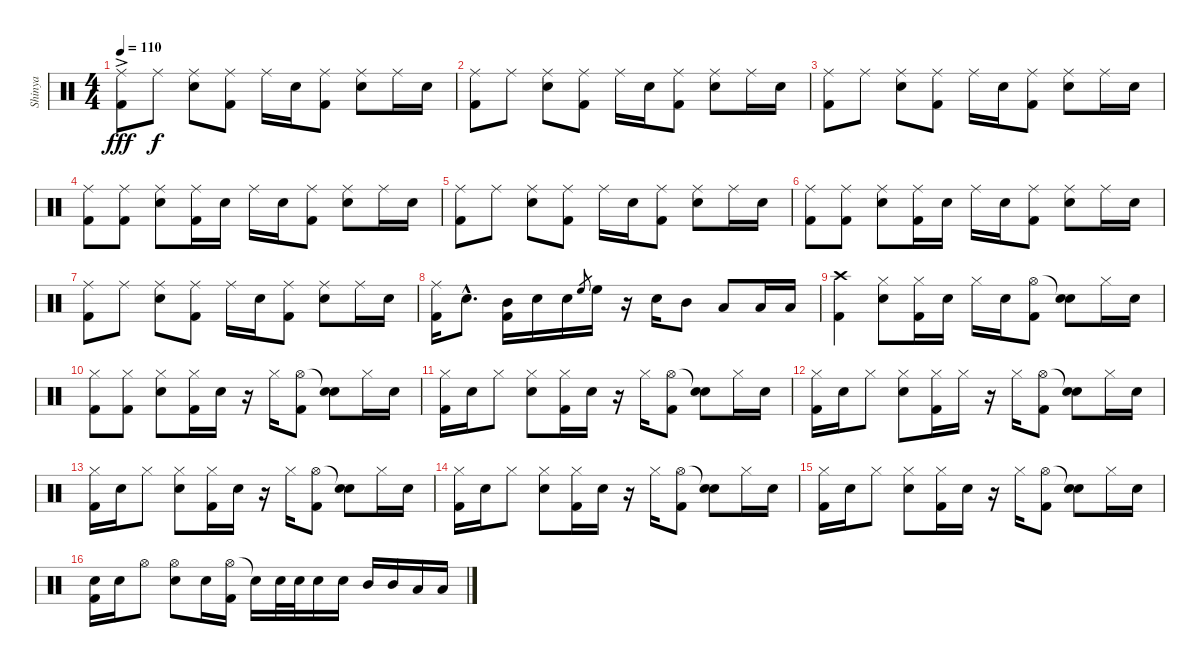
\track ("Shinya" "Shinya") {instrument percussion}
\staff {score}
\articulation defaults
\ts (4 4)
\tempo 110
\clef neutral
\ks c
("Ride (middle)"{ac} "Kick (hit) 2").8{dy fff} "Ride (middle)".8{dy f} ("Ride (middle)" "Snare (hit) 2").8 ("Ride (middle)" "Kick (hit) 2").8 "Ride (middle)".16 "Snare (hit) 2".16 ("Ride (middle)" "Kick (hit) 2").8 ("Ride (middle)" "Snare (hit) 2").8 "Ride (middle)".16 "Snare (hit) 2".16 |
("Ride (middle)" "Kick (hit) 2").8 "Ride (middle)".8 ("Ride (middle)" "Snare (hit) 2").8 ("Ride (middle)" "Kick (hit) 2").8 "Ride (middle)".16 "Snare (hit) 2".16 ("Ride (middle)" "Kick (hit) 2").8 ("Ride (middle)" "Snare (hit) 2").8 "Ride (middle)".16 "Snare (hit) 2".16 |
("Ride (middle)" "Kick (hit) 2").8 "Ride (middle)".8 ("Ride (middle)" "Snare (hit) 2").8 ("Ride (middle)" "Kick (hit) 2").8 "Ride (middle)".16 "Snare (hit) 2".16 ("Ride (middle)" "Kick (hit) 2").8 ("Ride (middle)" "Snare (hit) 2").8 "Ride (middle)".16 "Snare (hit) 2".16 |
("Ride (middle)" "Kick (hit) 2").8 ("Ride (middle)" "Kick (hit) 2").8 ("Ride (middle)" "Snare (hit) 2").8 ("Ride (middle)" "Kick (hit) 2").16 "Snare (hit) 2".16 "Ride (middle)".16 "Snare (hit) 2".16 ("Ride (middle)" "Kick (hit) 2").8 ("Ride (middle)" "Snare (hit) 2").8 "Ride (middle)".16 "Snare (hit) 2".16 |
("Ride (middle)" "Kick (hit) 2").8 "Ride (middle)".8 ("Ride (middle)" "Snare (hit) 2").8 ("Ride (middle)" "Kick (hit) 2").8 "Ride (middle)".16 "Snare (hit) 2".16 ("Ride (middle)" "Kick (hit) 2").8 ("Ride (middle)" "Snare (hit) 2").8 "Ride (middle)".16 "Snare (hit) 2".16 |
("Ride (middle)" "Kick (hit) 2").8 ("Ride (middle)" "Kick (hit) 2").8 ("Ride (middle)" "Snare (hit) 2").8 ("Ride (middle)" "Kick (hit) 2").16 "Snare (hit) 2".16 "Ride (middle)".16 "Snare (hit) 2".16 ("Ride (middle)" "Kick (hit) 2").8 ("Ride (middle)" "Snare (hit) 2").8 "Ride (middle)".16 "Snare (hit) 2".16 |
("Ride (middle)" "Kick (hit) 2").8 "Ride (middle)".8 ("Ride (middle)" "Snare (hit) 2").8 ("Ride (middle)" "Kick (hit) 2").8 "Ride (middle)".16 "Snare (hit) 2".16 ("Ride (middle)" "Kick (hit) 2").8 ("Ride (middle)" "Snare (hit) 2").8 "Ride (middle)".16 "Snare (hit) 2".16 |
("Ride (middle)" "Kick (hit) 2").16 "Snare (hit) 2"{hac}.8{d} ("Mid Tom (hit)" "Kick (hit) 2").16 "Snare (hit) 2".16 "Snare (hit) 2".16 "High Floor Tom (hit)".8{gr} "High Floor Tom (hit)".16 r.16 "Snare (hit) 2".16 "Mid Tom (hit)".8 "Low Tom (hit)".8 "Low Floor Tom (hit)".16 "Low Floor Tom (hit)".16 |
("Crash high (hit)" "Kick (hit) 2").4 ("Hi-Hat (closed)" "Snare (hit) 2").8 ("Hi-Hat (closed)" "Kick (hit) 2").16 "Snare (hit) 2".16 "Hi-Hat (closed)".16 "Snare (hit) 2".16 ("Hi-Hat (open)" "Kick (hit) 2").8 ("Snare (hit)"{t} "Snare (hit) 2").8 "Hi-Hat (closed)".16 "Snare (hit) 2".16 |
("Hi-Hat (closed)" "Kick (hit) 2").8 ("Hi-Hat (closed)" "Kick (hit) 2").8 ("Hi-Hat (closed)" "Snare (hit) 2").8 ("Hi-Hat (closed)" "Kick (hit) 2").16 "Snare (hit) 2".16 r.16 "Hi-Hat (closed)".16 ("Hi-Hat (open)" "Kick (hit) 2").8 ("Snare (hit)"{t} "Snare (hit) 2").8 "Hi-Hat (closed)".16 "Snare (hit) 2".16 |
("Hi-Hat (closed)" "Kick (hit) 2").16 "Snare (hit) 2".16 "Hi-Hat (closed)".8 ("Hi-Hat (closed)" "Snare (hit) 2").8 ("Hi-Hat (closed)" "Kick (hit) 2").16 "Snare (hit) 2".16 r.16 "Hi-Hat (closed)".16 ("Hi-Hat (open)" "Kick (hit) 2").8 ("Snare (hit)"{t} "Snare (hit) 2").8 "Hi-Hat (closed)".16 "Snare (hit) 2".16 |
("Hi-Hat (closed)" "Kick (hit) 2").16 "Snare (hit) 2".16 "Hi-Hat (closed)".8 ("Hi-Hat (closed)" "Snare (hit) 2").8 ("Hi-Hat (closed)" "Kick (hit) 2").16 "Hi-Hat (closed)".16 r.16 "Hi-Hat (closed)".16 ("Hi-Hat (open)" "Kick (hit) 2").8 ("Snare (hit)"{t} "Snare (hit) 2").8 "Hi-Hat (closed)".16 "Snare (hit) 2".16 |
("Hi-Hat (closed)" "Kick (hit) 2").16 "Snare (hit) 2".16 "Hi-Hat (closed)".8 ("Hi-Hat (closed)" "Snare (hit) 2").8 ("Hi-Hat (closed)" "Kick (hit) 2").16 "Snare (hit) 2".16 r.16 "Hi-Hat (closed)".16 ("Hi-Hat (open)" "Kick (hit) 2").8 ("Snare (hit)"{t} "Snare (hit) 2").8 "Hi-Hat (closed)".16 "Snare (hit) 2".16 |
("Hi-Hat (closed)" "Kick (hit) 2").16 "Snare (hit) 2".16 "Hi-Hat (closed)".8 ("Hi-Hat (closed)" "Snare (hit) 2").8 ("Hi-Hat (closed)" "Kick (hit) 2").16 "Snare (hit) 2".16 r.16 "Hi-Hat (closed)".16 ("Hi-Hat (open)" "Kick (hit) 2").8 ("Snare (hit)"{t} "Snare (hit) 2").8 "Hi-Hat (closed)".16 "Snare (hit) 2".16 |
("Hi-Hat (closed)" "Kick (hit) 2").16 "Snare (hit) 2".16 "Hi-Hat (closed)".8 ("Hi-Hat (closed)" "Snare (hit) 2").8 ("Hi-Hat (closed)" "Kick (hit) 2").16 "Snare (hit) 2".16 r.16 "Hi-Hat (closed)".16 ("Hi-Hat (open)" "Kick (hit) 2").8 ("Snare (hit)"{t} "Snare (hit) 2").8 "Hi-Hat (closed)".16 "Snare (hit) 2".16 |
("Snare (hit) 2" "Kick (hit) 2").16 "Snare (hit) 2".16 "Hi-Hat (open)".8 ("Hi-Hat (open)" "Snare (hit) 2").8 "Snare (hit) 2".16 ("Hi-Hat (open)" "Kick (hit) 2").16 "Snare (hit)"{t}.16 "Snare (hit) 2".32 "Snare (hit) 2".32 "Snare (hit) 2".16 "Snare (hit) 2".16 "Mid Tom (hit)".16 "Mid Tom (hit)".16 "Low Tom (hit)".16 "Low Tom (hit)".16
